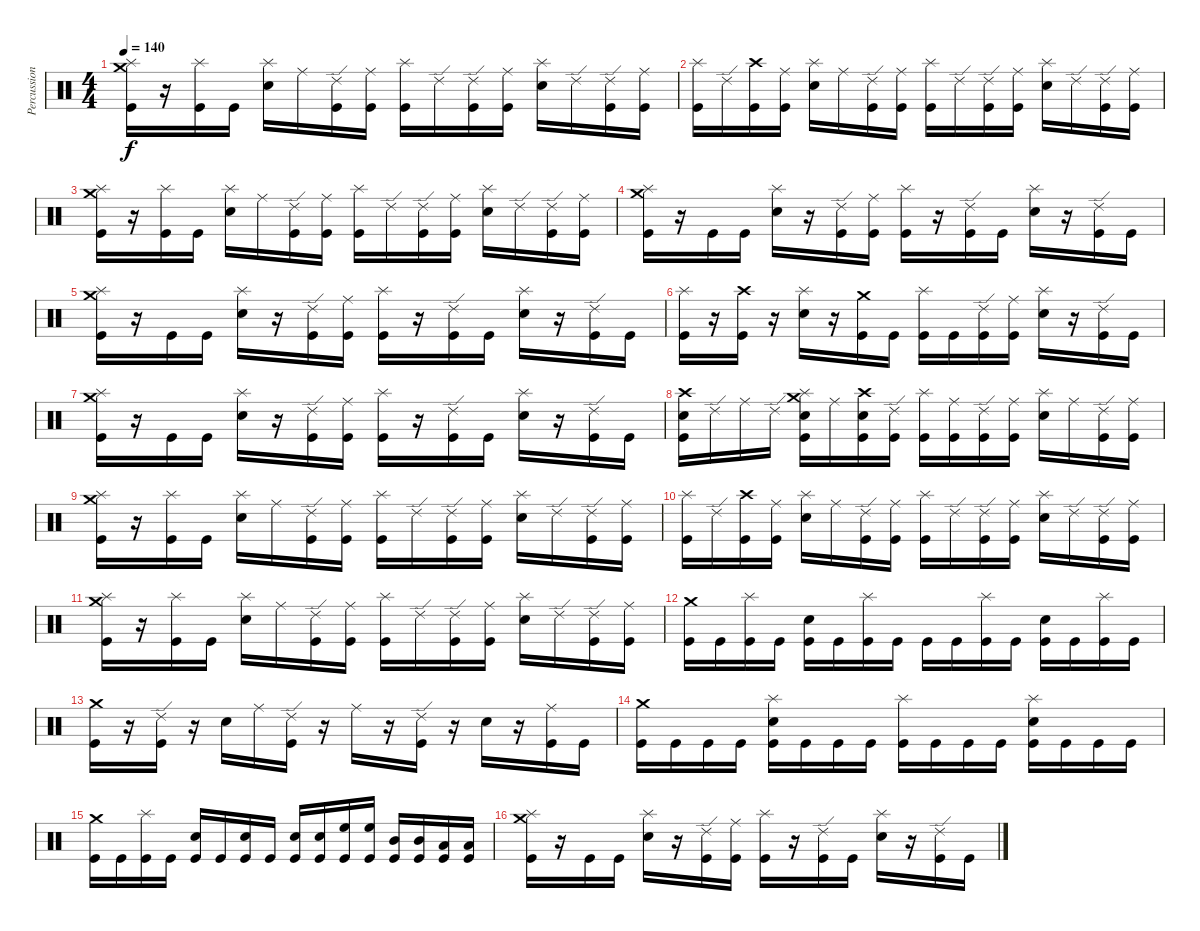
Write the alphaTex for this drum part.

\track ("Percussion" "Percussion") {instrument percussion}
\staff {score}
\articulation defaults
\ts (4 4)
\tempo 140
\clef neutral
\ks c
("Crash medium (hit)" "Splash (hit)" "Kick (hit)").16{dy f} r.16 ("Splash (hit)" "Kick (hit)").16 "Kick (hit)".16 ("Electric Snare (hit)" "Splash (hit)").16 "Ride (middle)".16 ("Ride (edge) 2" "Kick (hit)").16 ("Ride (middle)" "Kick (hit)").16 ("Splash (hit)" "Kick (hit)").16 "Ride (edge) 2".16 ("Ride (edge) 2" "Kick (hit)").16 ("Ride (middle)" "Kick (hit)").16 ("Electric Snare (hit)" "Splash (hit)").16 "Ride (edge) 2".16 ("Ride (edge) 2" "Kick (hit)").16 ("Ride (middle)" "Kick (hit)").16 |
("Splash (hit)" "Kick (hit)").16 "Ride (edge) 2".16 ("Crash high (hit)" "Kick (hit)").16 ("Ride (middle)" "Kick (hit)").16 ("Electric Snare (hit)" "Splash (hit)").16 "Ride (middle)".16 ("Ride (edge) 2" "Kick (hit)").16 ("Ride (middle)" "Kick (hit)").16 ("Splash (hit)" "Kick (hit)").16 "Ride (edge) 2".16 ("Ride (edge) 2" "Kick (hit)").16 ("Ride (middle)" "Kick (hit)").16 ("Electric Snare (hit)" "Splash (hit)").16 "Ride (edge) 2".16 ("Ride (edge) 2" "Kick (hit)").16 ("Ride (middle)" "Kick (hit)").16 |
("Crash medium (hit)" "Splash (hit)" "Kick (hit)").16 r.16 ("Splash (hit)" "Kick (hit)").16 "Kick (hit)".16 ("Electric Snare (hit)" "Splash (hit)").16 "Ride (middle)".16 ("Ride (edge) 2" "Kick (hit)").16 ("Ride (middle)" "Kick (hit)").16 ("Splash (hit)" "Kick (hit)").16 "Ride (edge) 2".16 ("Ride (edge) 2" "Kick (hit)").16 ("Ride (middle)" "Kick (hit)").16 ("Electric Snare (hit)" "Splash (hit)").16 "Ride (edge) 2".16 ("Ride (edge) 2" "Kick (hit)").16 ("Ride (middle)" "Kick (hit)").16 |
("Crash medium (hit)" "Splash (hit)" "Kick (hit)").16 r.16 "Kick (hit)".16 "Kick (hit)".16 ("Electric Snare (hit)" "Splash (hit)").16 r.16 ("Ride (edge) 2" "Kick (hit)").16 ("Ride (middle)" "Kick (hit)").16 ("Splash (hit)" "Kick (hit)").16 r.16 ("Ride (edge) 2" "Kick (hit)").16 "Kick (hit)".16 ("Electric Snare (hit)" "Splash (hit)").16 r.16 ("Ride (edge) 2" "Kick (hit)").16 "Kick (hit)".16 |
("Crash medium (hit)" "Splash (hit)" "Kick (hit)").16 r.16 "Kick (hit)".16 "Kick (hit)".16 ("Electric Snare (hit)" "Splash (hit)").16 r.16 ("Ride (edge) 2" "Kick (hit)").16 ("Ride (middle)" "Kick (hit)").16 ("Splash (hit)" "Kick (hit)").16 r.16 ("Ride (edge) 2" "Kick (hit)").16 "Kick (hit)".16 ("Electric Snare (hit)" "Splash (hit)").16 r.16 ("Ride (edge) 2" "Kick (hit)").16 "Kick (hit)".16 |
("Splash (hit)" "Kick (hit)").16 r.16 ("Crash high (hit)" "Kick (hit)").16 r.16 ("Electric Snare (hit)" "Splash (hit)").16 r.16 ("Crash medium (hit)" "Kick (hit)").16 "Kick (hit)".16 ("Splash (hit)" "Kick (hit)").16 "Kick (hit)".16 ("Ride (edge) 2" "Kick (hit)").16 ("Ride (middle)" "Kick (hit)").16 ("Electric Snare (hit)" "Splash (hit)").16 r.16 ("Ride (edge) 2" "Kick (hit)").16 "Kick (hit)".16 |
("Crash medium (hit)" "Splash (hit)" "Kick (hit)").16 r.16 "Kick (hit)".16 "Kick (hit)".16 ("Electric Snare (hit)" "Splash (hit)").16 r.16 ("Ride (edge) 2" "Kick (hit)").16 ("Ride (middle)" "Kick (hit)").16 ("Splash (hit)" "Kick (hit)").16 r.16 ("Ride (edge) 2" "Kick (hit)").16 "Kick (hit)".16 ("Electric Snare (hit)" "Splash (hit)").16 r.16 ("Ride (edge) 2" "Kick (hit)").16 "Kick (hit)".16 |
("Crash high (hit)" "Electric Snare (hit)" "Kick (hit)").16 "Ride (edge) 2".16 "Ride (middle)".16 "Ride (edge) 2".16 ("Crash medium (hit)" "Electric Snare (hit)" "Splash (hit)" "Kick (hit)").16 "Ride (middle)".16 ("Crash high (hit)" "Electric Snare (hit)" "Kick (hit)").16 ("Ride (edge) 2" "Kick (hit)").16 ("Splash (hit)" "Kick (hit)").16 ("Ride (middle)" "Kick (hit)").16 ("Ride (edge) 2" "Kick (hit)").16 ("Ride (middle)" "Kick (hit)").16 ("Electric Snare (hit)" "Splash (hit)").16 "Ride (middle)".16 ("Ride (edge) 2" "Kick (hit)").16 ("Ride (middle)" "Kick (hit)").16 |
("Crash medium (hit)" "Splash (hit)" "Kick (hit)").16 r.16 ("Splash (hit)" "Kick (hit)").16 "Kick (hit)".16 ("Electric Snare (hit)" "Splash (hit)").16 "Ride (middle)".16 ("Ride (edge) 2" "Kick (hit)").16 ("Ride (middle)" "Kick (hit)").16 ("Splash (hit)" "Kick (hit)").16 "Ride (edge) 2".16 ("Ride (edge) 2" "Kick (hit)").16 ("Ride (middle)" "Kick (hit)").16 ("Electric Snare (hit)" "Splash (hit)").16 "Ride (edge) 2".16 ("Ride (edge) 2" "Kick (hit)").16 ("Ride (middle)" "Kick (hit)").16 |
("Splash (hit)" "Kick (hit)").16 "Ride (edge) 2".16 ("Crash high (hit)" "Kick (hit)").16 ("Ride (middle)" "Kick (hit)").16 ("Electric Snare (hit)" "Splash (hit)").16 "Ride (middle)".16 ("Ride (edge) 2" "Kick (hit)").16 ("Ride (middle)" "Kick (hit)").16 ("Splash (hit)" "Kick (hit)").16 "Ride (edge) 2".16 ("Ride (edge) 2" "Kick (hit)").16 ("Ride (middle)" "Kick (hit)").16 ("Electric Snare (hit)" "Splash (hit)").16 "Ride (edge) 2".16 ("Ride (edge) 2" "Kick (hit)").16 ("Ride (middle)" "Kick (hit)").16 |
("Crash medium (hit)" "Splash (hit)" "Kick (hit)").16 r.16 ("Splash (hit)" "Kick (hit)").16 "Kick (hit)".16 ("Electric Snare (hit)" "Splash (hit)").16 "Ride (middle)".16 ("Ride (edge) 2" "Kick (hit)").16 ("Ride (middle)" "Kick (hit)").16 ("Splash (hit)" "Kick (hit)").16 "Ride (edge) 2".16 ("Ride (edge) 2" "Kick (hit)").16 ("Ride (middle)" "Kick (hit)").16 ("Electric Snare (hit)" "Splash (hit)").16 "Ride (edge) 2".16 ("Ride (edge) 2" "Kick (hit)").16 ("Ride (middle)" "Kick (hit)").16 |
("Crash medium (hit)" "Kick (hit)").16 "Kick (hit)".16 ("Splash (hit)" "Kick (hit)").16 "Kick (hit)".16 ("Electric Snare (hit)" "Kick (hit)").16 "Kick (hit)".16 ("Splash (hit)" "Kick (hit)").16 "Kick (hit)".16 "Kick (hit)".16 "Kick (hit)".16 ("Splash (hit)" "Kick (hit)").16 "Kick (hit)".16 ("Electric Snare (hit)" "Kick (hit)").16 "Kick (hit)".16 ("Splash (hit)" "Kick (hit)").16 "Kick (hit)".16 |
("Crash medium (hit)" "Kick (hit)").16 r.16 ("Ride (edge) 2" "Kick (hit)").16 r.16 "Electric Snare (hit)".16 "Ride (middle)".16 ("Ride (edge) 2" "Kick (hit)").16 r.16 "Ride (middle)".16 r.16 ("Ride (edge) 2" "Kick (hit)").16 r.16 "Electric Snare (hit)".16 r.16 ("Ride (middle)" "Kick (hit)").16 "Kick (hit)".16 |
("Crash medium (hit)" "Kick (hit)").16 "Kick (hit)".16 "Kick (hit)".16 "Kick (hit)".16 ("Electric Snare (hit)" "Splash (hit)" "Kick (hit)").16 "Kick (hit)".16 "Kick (hit)".16 "Kick (hit)".16 ("Splash (hit)" "Kick (hit)").16 "Kick (hit)".16 "Kick (hit)".16 "Kick (hit)".16 ("Electric Snare (hit)" "Splash (hit)" "Kick (hit)").16 "Kick (hit)".16 "Kick (hit)".16 "Kick (hit)".16 |
("Crash medium (hit)" "Kick (hit)").16 "Kick (hit)".16 ("Splash (hit)" "Kick (hit)").16 "Kick (hit)".16 ("Electric Snare (hit)" "Kick (hit)").16 "Kick (hit)".16 ("Electric Snare (hit)" "Kick (hit)").16 "Kick (hit)".16 ("Electric Snare (hit)" "Kick (hit)").16 ("Electric Snare (hit)" "Kick (hit)").16 ("High Floor Tom (hit)" "Kick (hit)").16 ("High Floor Tom (hit)" "Kick (hit)").16 ("Mid Tom (hit)" "Kick (hit)").16 ("Mid Tom (hit)" "Kick (hit)").16 ("Low Tom (hit)" "Kick (hit)").16 ("Low Tom (hit)" "Kick (hit)").16 |
("Crash medium (hit)" "Splash (hit)" "Kick (hit)").16 r.16 "Kick (hit)".16 "Kick (hit)".16 ("Electric Snare (hit)" "Splash (hit)").16 r.16 ("Ride (edge) 2" "Kick (hit)").16 ("Ride (middle)" "Kick (hit)").16 ("Splash (hit)" "Kick (hit)").16 r.16 ("Ride (edge) 2" "Kick (hit)").16 "Kick (hit)".16 ("Electric Snare (hit)" "Splash (hit)").16 r.16 ("Ride (edge) 2" "Kick (hit)").16 "Kick (hit)".16
